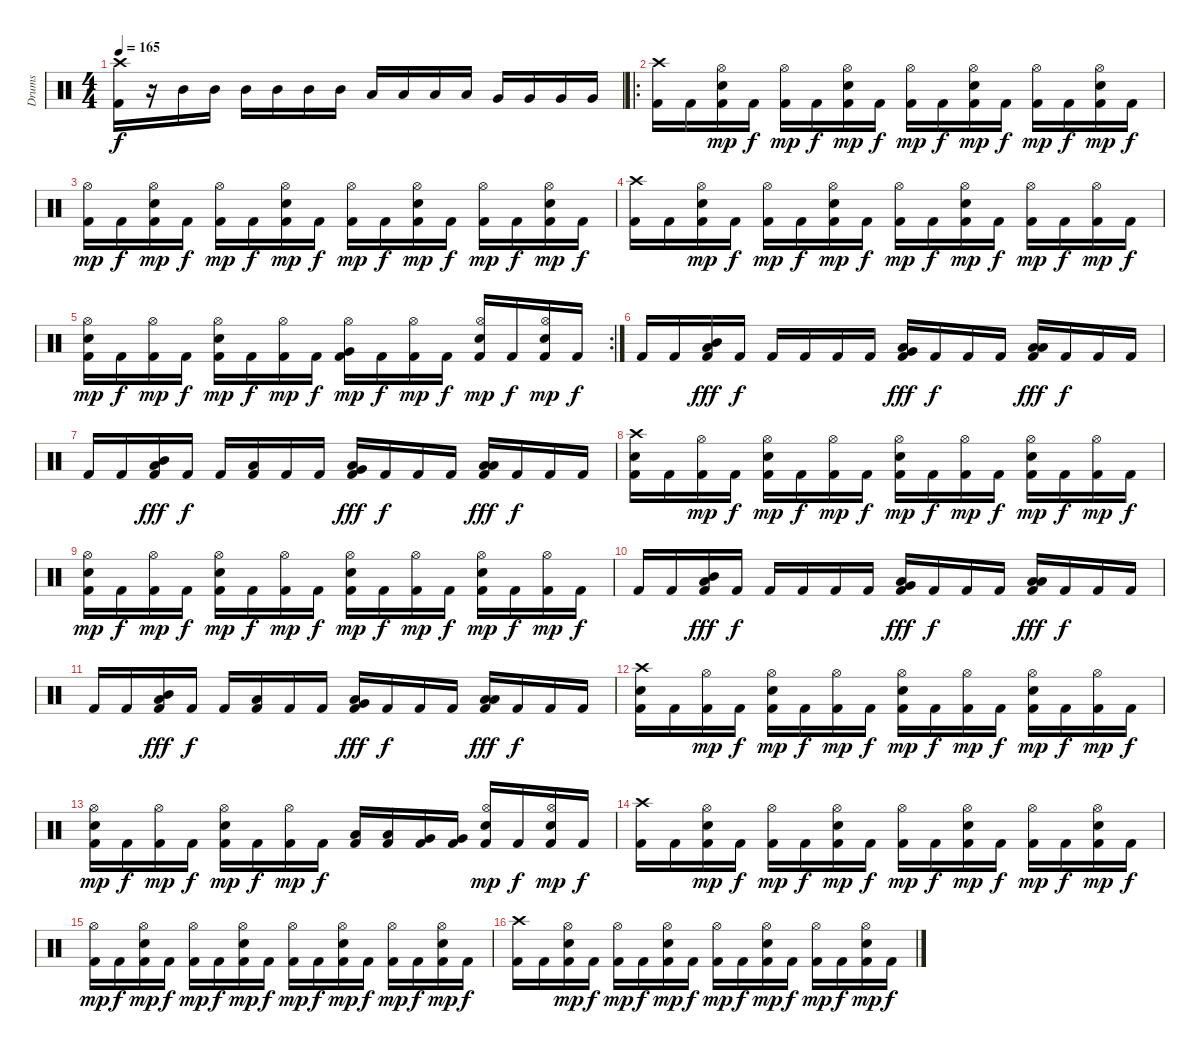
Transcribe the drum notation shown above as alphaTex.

\track ("Drums" "Drums") {instrument percussion}
\staff {score}
\articulation defaults
\ts (4 4)
\tempo 165
\clef neutral
\ks c
("Crash high (hit)" "Kick (hit) 2").16{dy f} r.16 "Mid Tom (hit)".16 "Mid Tom (hit)".16 "Mid Tom (hit)".16 "Mid Tom (hit)".16 "Mid Tom (hit)".16 "Mid Tom (hit)".16 "Low Tom (hit)".16 "Low Tom (hit)".16 "Low Tom (hit)".16 "Low Tom (hit)".16 "Very Low Tom (hit)".16 "Very Low Tom (hit)".16 "Very Low Tom (hit)".16 "Very Low Tom (hit)".16 |
\ro
("Crash high (hit)" "Kick (hit) 2").16 "Kick (hit) 2".16 ("Hi-Hat (open)" "Snare (hit) 2" "Kick (hit) 2").16{dy mp} "Kick (hit) 2".16{dy f} ("Hi-Hat (open)" "Kick (hit) 2").16{dy mp} "Kick (hit) 2".16{dy f} ("Hi-Hat (open)" "Snare (hit) 2" "Kick (hit) 2").16{dy mp} "Kick (hit) 2".16{dy f} ("Hi-Hat (open)" "Kick (hit) 2").16{dy mp} "Kick (hit) 2".16{dy f} ("Hi-Hat (open)" "Snare (hit) 2" "Kick (hit) 2").16{dy mp} "Kick (hit) 2".16{dy f} ("Hi-Hat (open)" "Kick (hit) 2").16{dy mp} "Kick (hit) 2".16{dy f} ("Hi-Hat (open)" "Snare (hit) 2" "Kick (hit) 2").16{dy mp} "Kick (hit) 2".16{dy f} |
("Hi-Hat (open)" "Kick (hit) 2").16{dy mp} "Kick (hit) 2".16{dy f} ("Hi-Hat (open)" "Snare (hit) 2" "Kick (hit) 2").16{dy mp} "Kick (hit) 2".16{dy f} ("Hi-Hat (open)" "Kick (hit) 2").16{dy mp} "Kick (hit) 2".16{dy f} ("Hi-Hat (open)" "Snare (hit) 2" "Kick (hit) 2").16{dy mp} "Kick (hit) 2".16{dy f} ("Hi-Hat (open)" "Kick (hit) 2").16{dy mp} "Kick (hit) 2".16{dy f} ("Hi-Hat (open)" "Snare (hit) 2" "Kick (hit) 2").16{dy mp} "Kick (hit) 2".16{dy f} ("Hi-Hat (open)" "Kick (hit) 2").16{dy mp} "Kick (hit) 2".16{dy f} ("Hi-Hat (open)" "Snare (hit) 2" "Kick (hit) 2").16{dy mp} "Kick (hit) 2".16{dy f} |
("Crash high (hit)" "Kick (hit) 2").16 "Kick (hit) 2".16 ("Hi-Hat (open)" "Snare (hit) 2" "Kick (hit) 2").16{dy mp} "Kick (hit) 2".16{dy f} ("Hi-Hat (open)" "Kick (hit) 2").16{dy mp} "Kick (hit) 2".16{dy f} ("Hi-Hat (open)" "Snare (hit) 2" "Kick (hit) 2").16{dy mp} "Kick (hit) 2".16{dy f} ("Hi-Hat (open)" "Kick (hit) 2").16{dy mp} "Kick (hit) 2".16{dy f} ("Hi-Hat (open)" "Snare (hit) 2" "Kick (hit) 2").16{dy mp} "Kick (hit) 2".16{dy f} ("Hi-Hat (open)" "Kick (hit) 2").16{dy mp} "Kick (hit) 2".16{dy f} ("Hi-Hat (open)" "Kick (hit) 2").16{dy mp} "Kick (hit) 2".16{dy f} |
\rc 2
("Hi-Hat (open)" "Snare (hit) 2" "Kick (hit) 2").16{dy mp} "Kick (hit) 2".16{dy f} ("Hi-Hat (open)" "Kick (hit) 2").16{dy mp} "Kick (hit) 2".16{dy f} ("Hi-Hat (open)" "Snare (hit) 2" "Kick (hit) 2").16{dy mp} "Kick (hit) 2".16{dy f} ("Hi-Hat (open)" "Kick (hit) 2").16{dy mp} "Kick (hit) 2".16{dy f} ("Hi-Hat (open)" "Very Low Tom (hit)" "Kick (hit) 2").16{dy mp} "Kick (hit) 2".16{dy f} ("Hi-Hat (open)" "Kick (hit) 2").16{dy mp} "Kick (hit) 2".16{dy f} ("Hi-Hat (open)" "Snare (hit) 2" "Kick (hit) 2").16{dy mp} "Kick (hit) 2".16{dy f} ("Hi-Hat (open)" "Snare (hit) 2" "Kick (hit) 2").16{dy mp} "Kick (hit) 2".16{dy f} |
"Kick (hit) 2".16 "Kick (hit) 2".16 ("Mid Tom (hit)" "Low Tom (hit)" "Kick (hit) 2").16{dy fff} "Kick (hit) 2".16{dy f} "Kick (hit) 2".16 "Kick (hit) 2".16 "Kick (hit) 2".16 "Kick (hit) 2".16 ("Low Tom (hit)" "Very Low Tom (hit)" "Kick (hit) 2").16{dy fff} "Kick (hit) 2".16{dy f} "Kick (hit) 2".16 "Kick (hit) 2".16 ("Low Tom (hit)" "Low Floor Tom (hit)" "Kick (hit) 2").16{dy fff} "Kick (hit) 2".16{dy f} "Kick (hit) 2".16 "Kick (hit) 2".16 |
"Kick (hit) 2".16 "Kick (hit) 2".16 ("Mid Tom (hit)" "Low Tom (hit)" "Kick (hit) 2").16{dy fff} "Kick (hit) 2".16{dy f} "Kick (hit) 2".16 ("Low Tom (hit)" "Kick (hit) 2").16 "Kick (hit) 2".16 "Kick (hit) 2".16 ("Low Tom (hit)" "Very Low Tom (hit)" "Kick (hit) 2").16{dy fff} "Kick (hit) 2".16{dy f} "Kick (hit) 2".16 "Kick (hit) 2".16 ("Low Tom (hit)" "Low Floor Tom (hit)" "Kick (hit) 2").16{dy fff} "Kick (hit) 2".16{dy f} "Kick (hit) 2".16 "Kick (hit) 2".16 |
("Crash high (hit)" "Snare (hit) 2" "Kick (hit) 2").16 "Kick (hit) 2".16 ("Hi-Hat (open)" "Kick (hit) 2").16{dy mp} "Kick (hit) 2".16{dy f} ("Hi-Hat (open)" "Snare (hit) 2" "Kick (hit) 2").16{dy mp} "Kick (hit) 2".16{dy f} ("Hi-Hat (open)" "Kick (hit) 2").16{dy mp} "Kick (hit) 2".16{dy f} ("Hi-Hat (open)" "Snare (hit) 2" "Kick (hit) 2").16{dy mp} "Kick (hit) 2".16{dy f} ("Hi-Hat (open)" "Kick (hit) 2").16{dy mp} "Kick (hit) 2".16{dy f} ("Hi-Hat (open)" "Snare (hit) 2" "Kick (hit) 2").16{dy mp} "Kick (hit) 2".16{dy f} ("Hi-Hat (open)" "Kick (hit) 2").16{dy mp} "Kick (hit) 2".16{dy f} |
("Hi-Hat (open)" "Snare (hit) 2" "Kick (hit) 2").16{dy mp} "Kick (hit) 2".16{dy f} ("Hi-Hat (open)" "Kick (hit) 2").16{dy mp} "Kick (hit) 2".16{dy f} ("Hi-Hat (open)" "Snare (hit) 2" "Kick (hit) 2").16{dy mp} "Kick (hit) 2".16{dy f} ("Hi-Hat (open)" "Kick (hit) 2").16{dy mp} "Kick (hit) 2".16{dy f} ("Hi-Hat (open)" "Snare (hit) 2" "Kick (hit) 2").16{dy mp} "Kick (hit) 2".16{dy f} ("Hi-Hat (open)" "Kick (hit) 2").16{dy mp} "Kick (hit) 2".16{dy f} ("Hi-Hat (open)" "Snare (hit) 2" "Kick (hit) 2").16{dy mp} "Kick (hit) 2".16{dy f} ("Hi-Hat (open)" "Kick (hit) 2").16{dy mp} "Kick (hit) 2".16{dy f} |
"Kick (hit) 2".16 "Kick (hit) 2".16 ("Mid Tom (hit)" "Low Tom (hit)" "Kick (hit) 2").16{dy fff} "Kick (hit) 2".16{dy f} "Kick (hit) 2".16 "Kick (hit) 2".16 "Kick (hit) 2".16 "Kick (hit) 2".16 ("Low Tom (hit)" "Very Low Tom (hit)" "Kick (hit) 2").16{dy fff} "Kick (hit) 2".16{dy f} "Kick (hit) 2".16 "Kick (hit) 2".16 ("Low Tom (hit)" "Low Floor Tom (hit)" "Kick (hit) 2").16{dy fff} "Kick (hit) 2".16{dy f} "Kick (hit) 2".16 "Kick (hit) 2".16 |
"Kick (hit) 2".16 "Kick (hit) 2".16 ("Mid Tom (hit)" "Low Tom (hit)" "Kick (hit) 2").16{dy fff} "Kick (hit) 2".16{dy f} "Kick (hit) 2".16 ("Low Tom (hit)" "Kick (hit) 2").16 "Kick (hit) 2".16 "Kick (hit) 2".16 ("Low Tom (hit)" "Very Low Tom (hit)" "Kick (hit) 2").16{dy fff} "Kick (hit) 2".16{dy f} "Kick (hit) 2".16 "Kick (hit) 2".16 ("Low Tom (hit)" "Low Floor Tom (hit)" "Kick (hit) 2").16{dy fff} "Kick (hit) 2".16{dy f} "Kick (hit) 2".16 "Kick (hit) 2".16 |
("Crash high (hit)" "Snare (hit) 2" "Kick (hit) 2").16 "Kick (hit) 2".16 ("Hi-Hat (open)" "Kick (hit) 2").16{dy mp} "Kick (hit) 2".16{dy f} ("Hi-Hat (open)" "Snare (hit) 2" "Kick (hit) 2").16{dy mp} "Kick (hit) 2".16{dy f} ("Hi-Hat (open)" "Kick (hit) 2").16{dy mp} "Kick (hit) 2".16{dy f} ("Hi-Hat (open)" "Snare (hit) 2" "Kick (hit) 2").16{dy mp} "Kick (hit) 2".16{dy f} ("Hi-Hat (open)" "Kick (hit) 2").16{dy mp} "Kick (hit) 2".16{dy f} ("Hi-Hat (open)" "Snare (hit) 2" "Kick (hit) 2").16{dy mp} "Kick (hit) 2".16{dy f} ("Hi-Hat (open)" "Kick (hit) 2").16{dy mp} "Kick (hit) 2".16{dy f} |
("Hi-Hat (open)" "Snare (hit) 2" "Kick (hit) 2").16{dy mp} "Kick (hit) 2".16{dy f} ("Hi-Hat (open)" "Kick (hit) 2").16{dy mp} "Kick (hit) 2".16{dy f} ("Hi-Hat (open)" "Snare (hit) 2" "Kick (hit) 2").16{dy mp} "Kick (hit) 2".16{dy f} ("Hi-Hat (open)" "Kick (hit) 2").16{dy mp} "Kick (hit) 2".16{dy f} ("Low Tom (hit)" "Kick (hit) 2").16 ("Low Tom (hit)" "Kick (hit) 2").16 ("Very Low Tom (hit)" "Kick (hit) 2").16 ("Very Low Tom (hit)" "Kick (hit) 2").16 ("Hi-Hat (open)" "Snare (hit) 2" "Kick (hit) 2").16{dy mp} "Kick (hit) 2".16{dy f} ("Hi-Hat (open)" "Snare (hit) 2" "Kick (hit) 2").16{dy mp} "Kick (hit) 2".16{dy f} |
("Crash high (hit)" "Kick (hit) 2").16 "Kick (hit) 2".16 ("Hi-Hat (open)" "Snare (hit) 2" "Kick (hit) 2").16{dy mp} "Kick (hit) 2".16{dy f} ("Hi-Hat (open)" "Kick (hit) 2").16{dy mp} "Kick (hit) 2".16{dy f} ("Hi-Hat (open)" "Snare (hit) 2" "Kick (hit) 2").16{dy mp} "Kick (hit) 2".16{dy f} ("Hi-Hat (open)" "Kick (hit) 2").16{dy mp} "Kick (hit) 2".16{dy f} ("Hi-Hat (open)" "Snare (hit) 2" "Kick (hit) 2").16{dy mp} "Kick (hit) 2".16{dy f} ("Hi-Hat (open)" "Kick (hit) 2").16{dy mp} "Kick (hit) 2".16{dy f} ("Hi-Hat (open)" "Snare (hit) 2" "Kick (hit) 2").16{dy mp} "Kick (hit) 2".16{dy f} |
("Hi-Hat (open)" "Kick (hit) 2").16{dy mp} "Kick (hit) 2".16{dy f} ("Hi-Hat (open)" "Snare (hit) 2" "Kick (hit) 2").16{dy mp} "Kick (hit) 2".16{dy f} ("Hi-Hat (open)" "Kick (hit) 2").16{dy mp} "Kick (hit) 2".16{dy f} ("Hi-Hat (open)" "Snare (hit) 2" "Kick (hit) 2").16{dy mp} "Kick (hit) 2".16{dy f} ("Hi-Hat (open)" "Kick (hit) 2").16{dy mp} "Kick (hit) 2".16{dy f} ("Hi-Hat (open)" "Snare (hit) 2" "Kick (hit) 2").16{dy mp} "Kick (hit) 2".16{dy f} ("Hi-Hat (open)" "Kick (hit) 2").16{dy mp} "Kick (hit) 2".16{dy f} ("Hi-Hat (open)" "Snare (hit) 2" "Kick (hit) 2").16{dy mp} "Kick (hit) 2".16{dy f} |
("Crash high (hit)" "Kick (hit) 2").16 "Kick (hit) 2".16 ("Hi-Hat (open)" "Snare (hit) 2" "Kick (hit) 2").16{dy mp} "Kick (hit) 2".16{dy f} ("Hi-Hat (open)" "Kick (hit) 2").16{dy mp} "Kick (hit) 2".16{dy f} ("Hi-Hat (open)" "Snare (hit) 2" "Kick (hit) 2").16{dy mp} "Kick (hit) 2".16{dy f} ("Hi-Hat (open)" "Kick (hit) 2").16{dy mp} "Kick (hit) 2".16{dy f} ("Hi-Hat (open)" "Snare (hit) 2" "Kick (hit) 2").16{dy mp} "Kick (hit) 2".16{dy f} ("Hi-Hat (open)" "Kick (hit) 2").16{dy mp} "Kick (hit) 2".16{dy f} ("Hi-Hat (open)" "Snare (hit) 2" "Kick (hit) 2").16{dy mp} "Kick (hit) 2".16{dy f}
